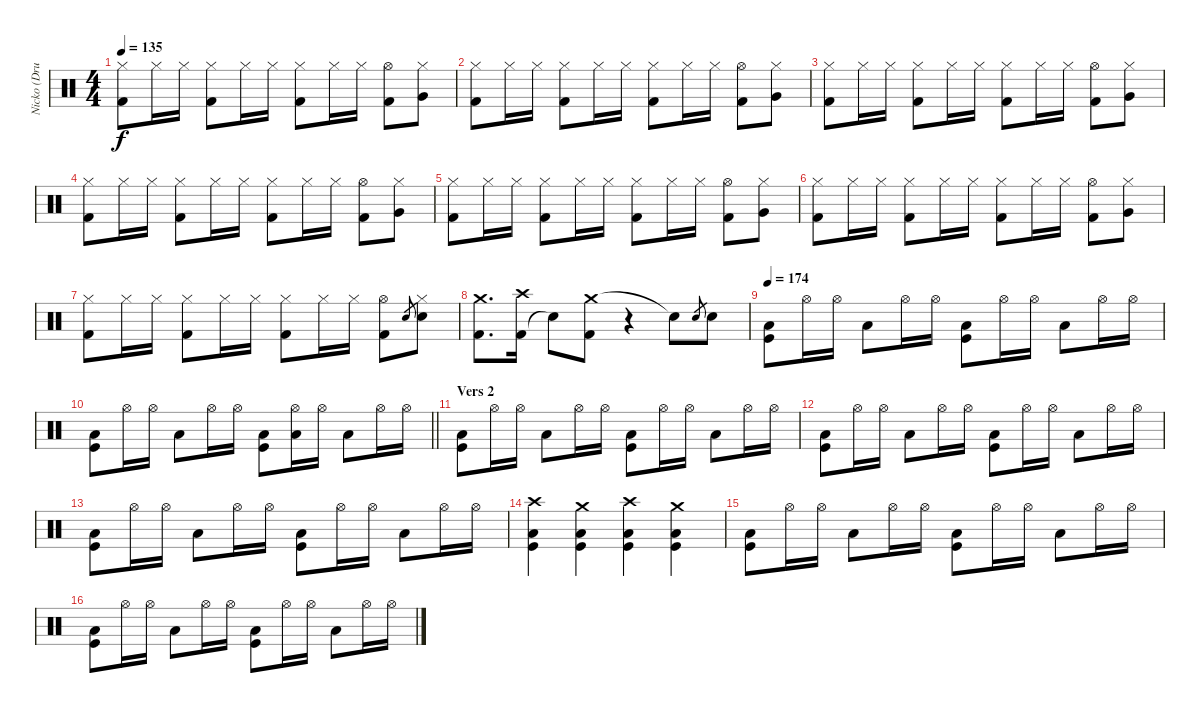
\track ("Nicko (Drums)" "Nicko (Dru") {instrument percussion}
\staff {score}
\articulation defaults
\ts (4 4)
\tempo 135
\clef neutral
\ks c
("Hi-Hat (closed)" "Kick (hit) 2").8{dy f} "Hi-Hat (closed)".16 "Hi-Hat (closed)".16 ("Hi-Hat (closed)" "Kick (hit) 2").8 "Hi-Hat (closed)".16 "Hi-Hat (closed)".16 ("Hi-Hat (closed)" "Kick (hit) 2").8 "Hi-Hat (closed)".16 "Hi-Hat (closed)".16 ("Hi-Hat (open)" "Kick (hit) 2").8 ("Hi-Hat (closed)" "Very Low Tom (hit)").8 |
("Hi-Hat (closed)" "Kick (hit) 2").8 "Hi-Hat (closed)".16 "Hi-Hat (closed)".16 ("Hi-Hat (closed)" "Kick (hit) 2").8 "Hi-Hat (closed)".16 "Hi-Hat (closed)".16 ("Hi-Hat (closed)" "Kick (hit) 2").8 "Hi-Hat (closed)".16 "Hi-Hat (closed)".16 ("Hi-Hat (open)" "Kick (hit) 2").8 ("Hi-Hat (closed)" "Very Low Tom (hit)").8 |
("Hi-Hat (closed)" "Kick (hit) 2").8 "Hi-Hat (closed)".16 "Hi-Hat (closed)".16 ("Hi-Hat (closed)" "Kick (hit) 2").8 "Hi-Hat (closed)".16 "Hi-Hat (closed)".16 ("Hi-Hat (closed)" "Kick (hit) 2").8 "Hi-Hat (closed)".16 "Hi-Hat (closed)".16 ("Hi-Hat (open)" "Kick (hit) 2").8 ("Hi-Hat (closed)" "Very Low Tom (hit)").8 |
("Hi-Hat (closed)" "Kick (hit) 2").8 "Hi-Hat (closed)".16 "Hi-Hat (closed)".16 ("Hi-Hat (closed)" "Kick (hit) 2").8 "Hi-Hat (closed)".16 "Hi-Hat (closed)".16 ("Hi-Hat (closed)" "Kick (hit) 2").8 "Hi-Hat (closed)".16 "Hi-Hat (closed)".16 ("Hi-Hat (open)" "Kick (hit) 2").8 ("Hi-Hat (closed)" "Very Low Tom (hit)").8 |
("Hi-Hat (closed)" "Kick (hit) 2").8 "Hi-Hat (closed)".16 "Hi-Hat (closed)".16 ("Hi-Hat (closed)" "Kick (hit) 2").8 "Hi-Hat (closed)".16 "Hi-Hat (closed)".16 ("Hi-Hat (closed)" "Kick (hit) 2").8 "Hi-Hat (closed)".16 "Hi-Hat (closed)".16 ("Hi-Hat (open)" "Kick (hit) 2").8 ("Hi-Hat (closed)" "Very Low Tom (hit)").8 |
("Hi-Hat (closed)" "Kick (hit) 2").8 "Hi-Hat (closed)".16 "Hi-Hat (closed)".16 ("Hi-Hat (closed)" "Kick (hit) 2").8 "Hi-Hat (closed)".16 "Hi-Hat (closed)".16 ("Hi-Hat (closed)" "Kick (hit) 2").8 "Hi-Hat (closed)".16 "Hi-Hat (closed)".16 ("Hi-Hat (open)" "Kick (hit) 2").8 ("Hi-Hat (closed)" "Very Low Tom (hit)").8 |
("Hi-Hat (closed)" "Kick (hit) 2").8 "Hi-Hat (closed)".16 "Hi-Hat (closed)".16 ("Hi-Hat (closed)" "Kick (hit) 2").8 "Hi-Hat (closed)".16 "Hi-Hat (closed)".16 ("Hi-Hat (closed)" "Kick (hit) 2").8 "Hi-Hat (closed)".16 "Hi-Hat (closed)".16 ("Hi-Hat (open)" "Kick (hit) 2").8 "Snare (hit) 2".8{gr} ("Hi-Hat (closed)" "Snare (hit) 2").8 |
("Crash medium (hit)" "Kick (hit) 2").8{d} ("Kick (hit) 2" "Crash high (hit)").16 "Snare (hit)"{t}.8 ("Crash medium (hit)" "Kick (hit) 2").8 r.4 "Snare (hit)"{t}.8 "Snare (hit) 2".8{gr} "Snare (hit) 2".8 |
\tempo 174
("Low Tom (hit)" "Kick (hit)").8 "Hi-Hat (open)".16 "Hi-Hat (open)".16 "Low Tom (hit)".8 "Hi-Hat (open)".16 "Hi-Hat (open)".16 ("Low Tom (hit)" "Kick (hit)").8 "Hi-Hat (open)".16 "Hi-Hat (open)".16 "Low Tom (hit)".8 "Hi-Hat (open)".16 "Hi-Hat (open)".16 |
\barLineRight lightlight
("Low Tom (hit)" "Kick (hit)").8 "Hi-Hat (open)".16 "Hi-Hat (open)".16 "Low Tom (hit)".8 "Hi-Hat (open)".16 "Hi-Hat (open)".16 ("Low Tom (hit)" "Kick (hit)").8 ("Hi-Hat (open)" "Low Tom (hit)").16 "Hi-Hat (open)".16 "Low Tom (hit)".8 "Hi-Hat (open)".16 "Hi-Hat (open)".16 |
\section ("" "Vers 2")
("Low Tom (hit)" "Kick (hit)").8 "Hi-Hat (open)".16 "Hi-Hat (open)".16 "Low Tom (hit)".8 "Hi-Hat (open)".16 "Hi-Hat (open)".16 ("Low Tom (hit)" "Kick (hit)").8 "Hi-Hat (open)".16 "Hi-Hat (open)".16 "Low Tom (hit)".8 "Hi-Hat (open)".16 "Hi-Hat (open)".16 |
("Low Tom (hit)" "Kick (hit)").8 "Hi-Hat (open)".16 "Hi-Hat (open)".16 "Low Tom (hit)".8 "Hi-Hat (open)".16 "Hi-Hat (open)".16 ("Low Tom (hit)" "Kick (hit)").8 "Hi-Hat (open)".16 "Hi-Hat (open)".16 "Low Tom (hit)".8 "Hi-Hat (open)".16 "Hi-Hat (open)".16 |
("Low Tom (hit)" "Kick (hit)").8 "Hi-Hat (open)".16 "Hi-Hat (open)".16 "Low Tom (hit)".8 "Hi-Hat (open)".16 "Hi-Hat (open)".16 ("Low Tom (hit)" "Kick (hit)").8 "Hi-Hat (open)".16 "Hi-Hat (open)".16 "Low Tom (hit)".8 "Hi-Hat (open)".16 "Hi-Hat (open)".16 |
("Crash high (hit)" "Low Tom (hit)" "Kick (hit)").4 ("Crash medium (hit)" "Low Tom (hit)" "Kick (hit)").4 ("Crash high (hit)" "Low Tom (hit)" "Kick (hit)").4 ("Crash medium (hit)" "Low Tom (hit)" "Kick (hit)").4 |
("Low Tom (hit)" "Kick (hit)").8 "Hi-Hat (open)".16 "Hi-Hat (open)".16 "Low Tom (hit)".8 "Hi-Hat (open)".16 "Hi-Hat (open)".16 ("Low Tom (hit)" "Kick (hit)").8 "Hi-Hat (open)".16 "Hi-Hat (open)".16 "Low Tom (hit)".8 "Hi-Hat (open)".16 "Hi-Hat (open)".16 |
("Low Tom (hit)" "Kick (hit)").8 "Hi-Hat (open)".16 "Hi-Hat (open)".16 "Low Tom (hit)".8 "Hi-Hat (open)".16 "Hi-Hat (open)".16 ("Low Tom (hit)" "Kick (hit)").8 "Hi-Hat (open)".16 "Hi-Hat (open)".16 "Low Tom (hit)".8 "Hi-Hat (open)".16 "Hi-Hat (open)".16
